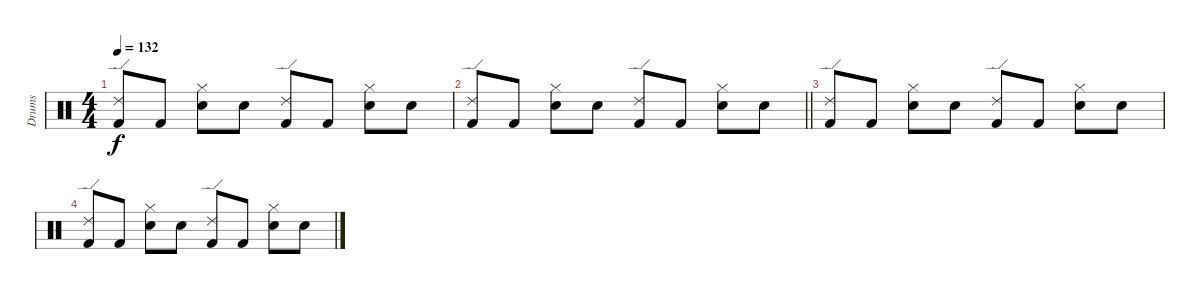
\track ("Drums" "Drums") {instrument percussion}
\staff {score}
\articulation defaults
\ts (4 4)
\tempo 132
\clef neutral
\ks c
("Ride (edge) 2" "Kick (hit) 2").8{dy f} "Kick (hit) 2".8 ("Hi-Hat (closed)" "Snare (hit) 2").8 "Snare (hit) 2".8 ("Ride (edge) 2" "Kick (hit) 2").8 "Kick (hit) 2".8 ("Hi-Hat (closed)" "Snare (hit) 2").8 "Snare (hit) 2".8 |
\barLineRight lightlight
("Ride (edge) 2" "Kick (hit) 2").8 "Kick (hit) 2".8 ("Hi-Hat (closed)" "Snare (hit) 2").8 "Snare (hit) 2".8 ("Ride (edge) 2" "Kick (hit) 2").8 "Kick (hit) 2".8 ("Hi-Hat (closed)" "Snare (hit) 2").8 "Snare (hit) 2".8 |
("Ride (edge) 2" "Kick (hit) 2").8 "Kick (hit) 2".8 ("Hi-Hat (closed)" "Snare (hit) 2").8 "Snare (hit) 2".8 ("Ride (edge) 2" "Kick (hit) 2").8 "Kick (hit) 2".8 ("Hi-Hat (closed)" "Snare (hit) 2").8 "Snare (hit) 2".8 |
("Ride (edge) 2" "Kick (hit) 2").8 "Kick (hit) 2".8 ("Hi-Hat (closed)" "Snare (hit) 2").8 "Snare (hit) 2".8 ("Ride (edge) 2" "Kick (hit) 2").8 "Kick (hit) 2".8 ("Hi-Hat (closed)" "Snare (hit) 2").8 "Snare (hit) 2".8
